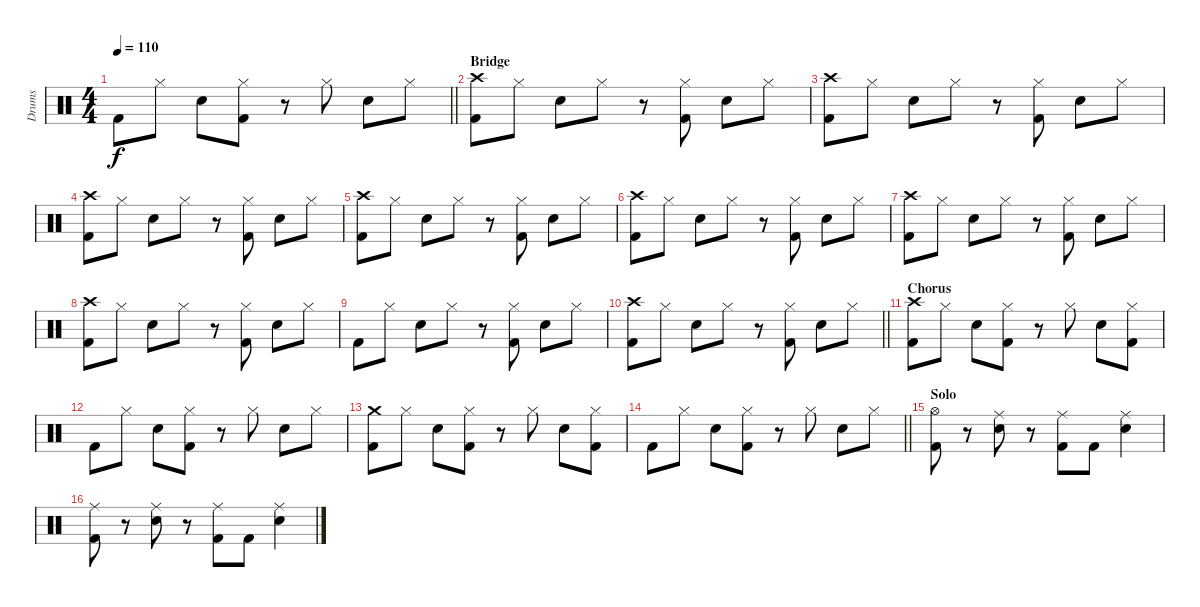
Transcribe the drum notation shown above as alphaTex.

\track ("Drums" "Drums") {instrument percussion}
\staff {score}
\articulation defaults
\ts (4 4)
\tempo 110
\clef neutral
\barLineRight lightlight
\ks c "Kick (hit) 2".8{dy f} "Hi-Hat (closed)".8 "Snare (hit) 2".8
("Kick (hit) 2" "Hi-Hat (closed)").8 r.8 "Hi-Hat (closed)".8 "Snare (hit) 2".8 "Hi-Hat (closed)".8 |
\section ("" "Bridge")
("Kick (hit) 2" "Crash high (hit)").8 "Hi-Hat (closed)".8 "Snare (hit) 2".8 "Hi-Hat (closed)".8 r.8 ("Kick (hit) 2" "Hi-Hat (closed)").8 "Snare (hit) 2".8 "Hi-Hat (closed)".8 |
("Kick (hit) 2" "Crash high (hit)").8 "Hi-Hat (closed)".8 "Snare (hit) 2".8 "Hi-Hat (closed)".8 r.8 ("Kick (hit) 2" "Hi-Hat (closed)").8 "Snare (hit) 2".8 "Hi-Hat (closed)".8 |
("Kick (hit) 2" "Crash high (hit)").8 "Hi-Hat (closed)".8 "Snare (hit) 2".8 "Hi-Hat (closed)".8 r.8 ("Kick (hit) 2" "Hi-Hat (closed)").8 "Snare (hit) 2".8 "Hi-Hat (closed)".8 |
("Kick (hit) 2" "Crash high (hit)").8 "Hi-Hat (closed)".8 "Snare (hit) 2".8 "Hi-Hat (closed)".8 r.8 ("Kick (hit) 2" "Hi-Hat (closed)").8 "Snare (hit) 2".8 "Hi-Hat (closed)".8 |
("Kick (hit) 2" "Crash high (hit)").8 "Hi-Hat (closed)".8 "Snare (hit) 2".8 "Hi-Hat (closed)".8 r.8 ("Kick (hit) 2" "Hi-Hat (closed)").8 "Snare (hit) 2".8 "Hi-Hat (closed)".8 |
("Kick (hit) 2" "Crash high (hit)").8 "Hi-Hat (closed)".8 "Snare (hit) 2".8 "Hi-Hat (closed)".8 r.8 ("Kick (hit) 2" "Hi-Hat (closed)").8 "Snare (hit) 2".8 "Hi-Hat (closed)".8 |
("Kick (hit) 2" "Crash high (hit)").8 "Hi-Hat (closed)".8 "Snare (hit) 2".8 "Hi-Hat (closed)".8 r.8 ("Kick (hit) 2" "Hi-Hat (closed)").8 "Snare (hit) 2".8 "Hi-Hat (closed)".8 |
"Kick (hit) 2".8 "Hi-Hat (closed)".8 "Snare (hit) 2".8 "Hi-Hat (closed)".8 r.8 ("Kick (hit) 2" "Hi-Hat (closed)").8 "Snare (hit) 2".8 "Hi-Hat (closed)".8 |
\barLineRight lightlight
("Kick (hit) 2" "Crash high (hit)").8 "Hi-Hat (closed)".8 "Snare (hit) 2".8 "Hi-Hat (closed)".8 r.8 ("Kick (hit) 2" "Hi-Hat (closed)").8 "Snare (hit) 2".8 "Hi-Hat (closed)".8 |
\section ("" "Chorus")
("Kick (hit) 2" "Crash high (hit)").8 "Hi-Hat (closed)".8 "Snare (hit) 2".8 ("Kick (hit) 2" "Hi-Hat (closed)").8 r.8 "Hi-Hat (closed)".8 "Snare (hit) 2".8 ("Kick (hit) 2" "Hi-Hat (closed)").8 |
"Kick (hit) 2".8 "Hi-Hat (closed)".8 "Snare (hit) 2".8 ("Kick (hit) 2" "Hi-Hat (closed)").8 r.8 "Hi-Hat (closed)".8 "Snare (hit) 2".8 "Hi-Hat (closed)".8 |
("Kick (hit) 2" "Crash medium (hit)").8 "Hi-Hat (closed)".8 "Snare (hit) 2".8 ("Kick (hit) 2" "Hi-Hat (closed)").8 r.8 "Hi-Hat (closed)".8 "Snare (hit) 2".8 ("Kick (hit) 2" "Hi-Hat (closed)").8 |
\barLineRight lightlight "Kick (hit) 2".8 "Hi-Hat (closed)".8 "Snare (hit) 2".8
("Kick (hit) 2" "Hi-Hat (closed)").8 r.8 "Hi-Hat (closed)".8 "Snare (hit) 2".8 "Hi-Hat (closed)".8 |
\section ("" "Solo")
("Kick (hit) 2" "Hi-Hat (open)").8 r.8 ("Snare (hit) 2" "Ride (middle)").8 r.8 ("Kick (hit) 2" "Ride (middle)").8 "Kick (hit) 2".8 ("Snare (hit) 2" "Ride (middle)").4 |
("Kick (hit) 2" "Ride (middle)").8 r.8 ("Snare (hit) 2" "Ride (middle)").8 r.8 ("Kick (hit) 2" "Ride (middle)").8 "Kick (hit) 2".8 ("Snare (hit) 2" "Ride (middle)").4
